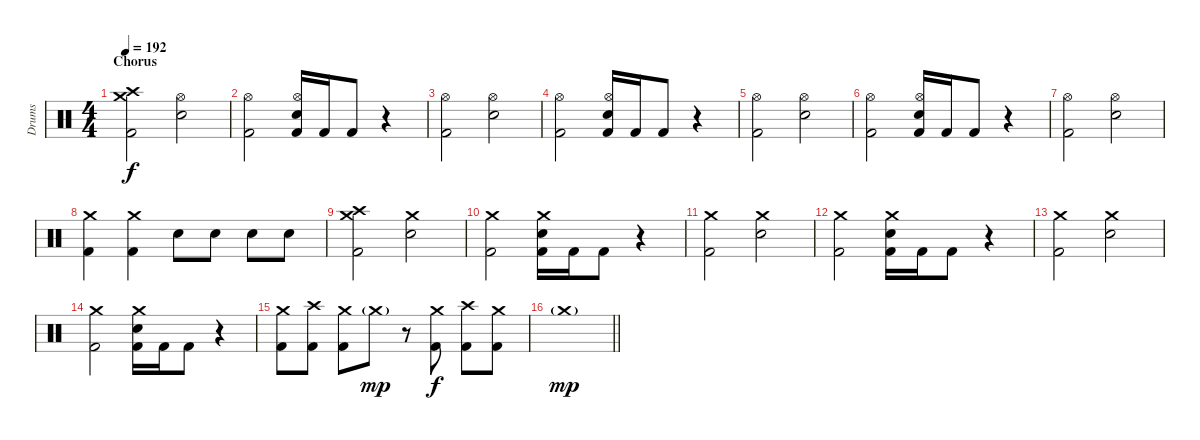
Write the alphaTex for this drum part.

\track ("Drums" "Drums") {instrument percussion}
\staff {score}
\articulation defaults
\ts (4 4)
\section ("" "Chorus")
\tempo 192
\clef neutral
\ks c
("Crash medium (hit)" "Crash high (hit)" "Kick (hit) 2").2{dy f} ("Hi-Hat (open)" "Electric Snare (hit)").2 |
("Hi-Hat (open)" "Kick (hit) 2").2 ("Hi-Hat (open)" "Electric Snare (hit)" "Kick (hit) 2").16 "Kick (hit) 2".16 "Kick (hit) 2".8 r.4 |
("Hi-Hat (open)" "Kick (hit) 2").2 ("Hi-Hat (open)" "Electric Snare (hit)").2 |
("Hi-Hat (open)" "Kick (hit) 2").2 ("Hi-Hat (open)" "Electric Snare (hit)" "Kick (hit) 2").16 "Kick (hit) 2".16 "Kick (hit) 2".8 r.4 |
("Hi-Hat (open)" "Kick (hit) 2").2 ("Hi-Hat (open)" "Electric Snare (hit)").2 |
("Hi-Hat (open)" "Kick (hit) 2").2 ("Hi-Hat (open)" "Electric Snare (hit)" "Kick (hit) 2").16 "Kick (hit) 2".16 "Kick (hit) 2".8 r.4 |
("Hi-Hat (open)" "Kick (hit) 2").2 ("Hi-Hat (open)" "Electric Snare (hit)").2 |
("Crash medium (hit)" "Kick (hit) 2").4 ("Crash medium (hit)" "Kick (hit) 2").4 "Electric Snare (hit)".8 "Electric Snare (hit)".8 "Electric Snare (hit)".8 "Electric Snare (hit)".8 |
("Crash medium (hit)" "Crash high (hit)" "Kick (hit) 2").2 ("Crash medium (hit)" "Electric Snare (hit)").2 |
("Crash medium (hit)" "Kick (hit) 2").2 ("Crash medium (hit)" "Electric Snare (hit)" "Kick (hit) 2").16 "Kick (hit) 2".16 "Kick (hit) 2".8 r.4 |
("Crash medium (hit)" "Kick (hit) 2").2 ("Crash medium (hit)" "Electric Snare (hit)").2 |
("Crash medium (hit)" "Kick (hit) 2").2 ("Crash medium (hit)" "Electric Snare (hit)" "Kick (hit) 2").16 "Kick (hit) 2".16 "Kick (hit) 2".8 r.4 |
("Crash medium (hit)" "Kick (hit) 2").2 ("Crash medium (hit)" "Electric Snare (hit)").2 |
("Crash medium (hit)" "Kick (hit) 2").2 ("Crash medium (hit)" "Electric Snare (hit)" "Kick (hit) 2").16 "Kick (hit) 2".16 "Kick (hit) 2".8 r.4 |
("Crash medium (hit)" "Kick (hit) 2").8 ("Crash high (hit)" "Kick (hit) 2").8 ("Crash medium (hit)" "Kick (hit) 2").8 "Crash medium (hit)"{g}.8{dy mp} r.8 ("Crash medium (hit)" "Kick (hit) 2").8{dy f} ("Crash high (hit)" "Kick (hit) 2").8 ("Crash medium (hit)" "Kick (hit) 2").8 |
\barLineRight lightlight "Crash medium (hit)"{g}.1{dy mp}
